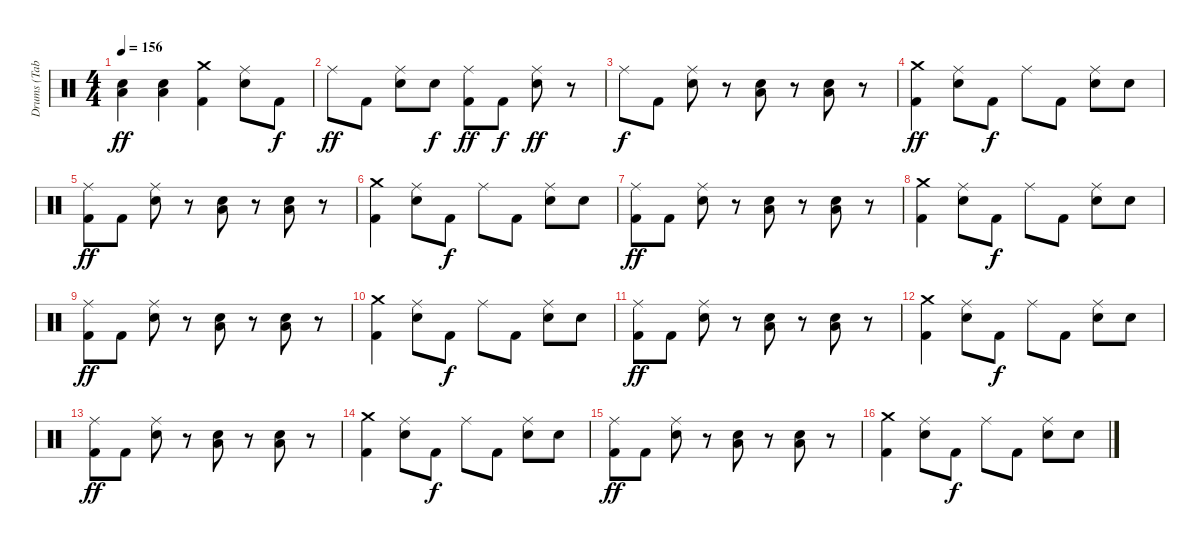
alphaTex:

\track ("Drums (Tab By Drumminger)" "Drums (Tab") {instrument percussion}
\staff {score}
\articulation defaults
\ts (4 4)
\tempo 156
\clef neutral
\ks c
("Low Floor Tom (hit)" "Snare (hit) 2").4{dy ff} ("Low Floor Tom (hit)" "Snare (hit) 2").4 ("Crash medium (hit)" "Kick (hit) 2").4 ("Ride (middle)" "Snare (hit) 2").8 "Kick (hit) 2".8{dy f} |
"Ride (middle)".8{dy ff} "Kick (hit) 2".8 ("Ride (middle)" "Snare (hit) 2").8 "Snare (hit) 2".8{dy f} ("Ride (middle)" "Kick (hit) 2").8{dy ff} "Kick (hit) 2".8{dy f} ("Ride (middle)" "Snare (hit) 2").8{dy ff} r.8 |
"Ride (middle)".8{dy f} "Kick (hit) 2".8 ("Ride (middle)" "Snare (hit) 2").8 r.8 ("Low Floor Tom (hit)" "Snare (hit) 2").8 r.8 ("Low Floor Tom (hit)" "Snare (hit) 2").8 r.8 |
("Crash medium (hit)" "Kick (hit) 2").4{dy ff} ("Ride (middle)" "Snare (hit) 2").8 "Kick (hit) 2".8{dy f} "Ride (middle)".8 "Kick (hit) 2".8 ("Ride (middle)" "Snare (hit) 2").8 "Snare (hit) 2".8 |
("Ride (middle)" "Kick (hit) 2").8{dy ff} "Kick (hit) 2".8 ("Ride (middle)" "Snare (hit) 2").8 r.8 ("Low Floor Tom (hit)" "Snare (hit) 2").8 r.8 ("Low Floor Tom (hit)" "Snare (hit) 2").8 r.8 |
("Crash medium (hit)" "Kick (hit) 2").4 ("Ride (middle)" "Snare (hit) 2").8 "Kick (hit) 2".8{dy f} "Ride (middle)".8 "Kick (hit) 2".8 ("Ride (middle)" "Snare (hit) 2").8 "Snare (hit) 2".8 |
("Ride (middle)" "Kick (hit) 2").8{dy ff} "Kick (hit) 2".8 ("Ride (middle)" "Snare (hit) 2").8 r.8 ("Low Floor Tom (hit)" "Snare (hit) 2").8 r.8 ("Low Floor Tom (hit)" "Snare (hit) 2").8 r.8 |
("Crash medium (hit)" "Kick (hit) 2").4 ("Ride (middle)" "Snare (hit) 2").8 "Kick (hit) 2".8{dy f} "Ride (middle)".8 "Kick (hit) 2".8 ("Ride (middle)" "Snare (hit) 2").8 "Snare (hit) 2".8 |
("Ride (middle)" "Kick (hit) 2").8{dy ff} "Kick (hit) 2".8 ("Ride (middle)" "Snare (hit) 2").8 r.8 ("Low Floor Tom (hit)" "Snare (hit) 2").8 r.8 ("Low Floor Tom (hit)" "Snare (hit) 2").8 r.8 |
("Crash medium (hit)" "Kick (hit) 2").4 ("Ride (middle)" "Snare (hit) 2").8 "Kick (hit) 2".8{dy f} "Ride (middle)".8 "Kick (hit) 2".8 ("Ride (middle)" "Snare (hit) 2").8 "Snare (hit) 2".8 |
("Ride (middle)" "Kick (hit) 2").8{dy ff} "Kick (hit) 2".8 ("Ride (middle)" "Snare (hit) 2").8 r.8 ("Low Floor Tom (hit)" "Snare (hit) 2").8 r.8 ("Low Floor Tom (hit)" "Snare (hit) 2").8 r.8 |
("Crash medium (hit)" "Kick (hit) 2").4 ("Ride (middle)" "Snare (hit) 2").8 "Kick (hit) 2".8{dy f} "Ride (middle)".8 "Kick (hit) 2".8 ("Ride (middle)" "Snare (hit) 2").8 "Snare (hit) 2".8 |
("Ride (middle)" "Kick (hit) 2").8{dy ff} "Kick (hit) 2".8 ("Ride (middle)" "Snare (hit) 2").8 r.8 ("Low Floor Tom (hit)" "Snare (hit) 2").8 r.8 ("Low Floor Tom (hit)" "Snare (hit) 2").8 r.8 |
("Crash medium (hit)" "Kick (hit) 2").4 ("Ride (middle)" "Snare (hit) 2").8 "Kick (hit) 2".8{dy f} "Ride (middle)".8 "Kick (hit) 2".8 ("Ride (middle)" "Snare (hit) 2").8 "Snare (hit) 2".8 |
("Ride (middle)" "Kick (hit) 2").8{dy ff} "Kick (hit) 2".8 ("Ride (middle)" "Snare (hit) 2").8 r.8 ("Low Floor Tom (hit)" "Snare (hit) 2").8 r.8 ("Low Floor Tom (hit)" "Snare (hit) 2").8 r.8 |
("Crash medium (hit)" "Kick (hit) 2").4 ("Ride (middle)" "Snare (hit) 2").8 "Kick (hit) 2".8{dy f} "Ride (middle)".8 "Kick (hit) 2".8 ("Ride (middle)" "Snare (hit) 2").8 "Snare (hit) 2".8
